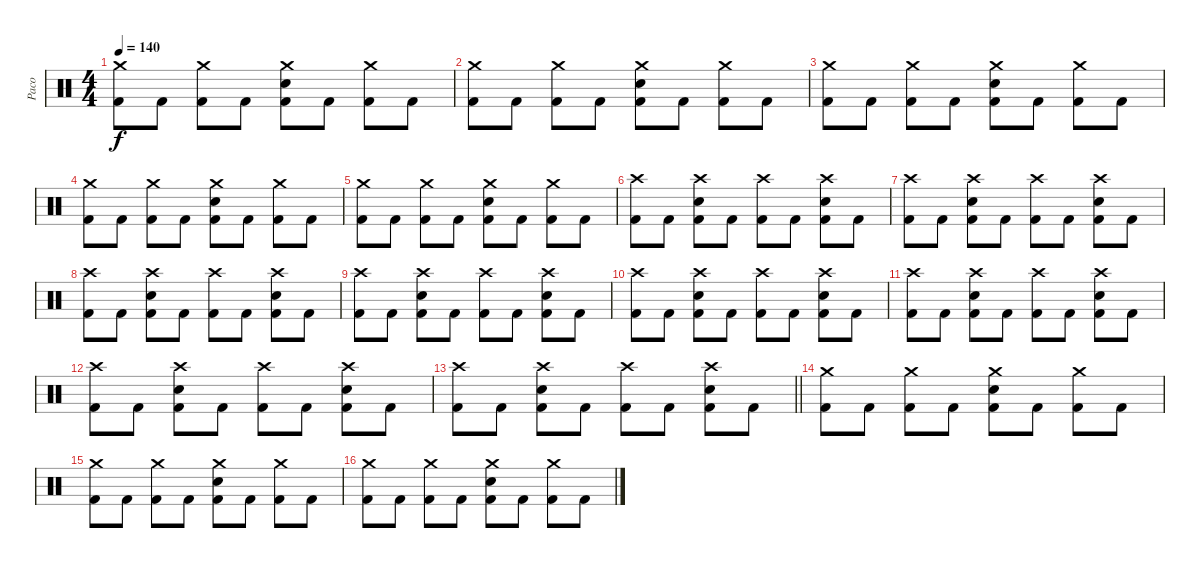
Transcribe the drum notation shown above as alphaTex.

\track ("Paco" "Paco") {instrument percussion}
\staff {score}
\articulation defaults
\ts (4 4)
\tempo 140
\clef neutral
\ks c
("Crash medium (hit)" "Kick (hit) 2").8{dy f} "Kick (hit) 2".8 ("Crash medium (hit)" "Kick (hit) 2").8 "Kick (hit) 2".8 ("Crash medium (hit)" "Electric Snare (hit)" "Kick (hit) 2").8 "Kick (hit) 2".8 ("Crash medium (hit)" "Kick (hit) 2").8 "Kick (hit) 2".8 |
("Crash medium (hit)" "Kick (hit) 2").8 "Kick (hit) 2".8 ("Crash medium (hit)" "Kick (hit) 2").8 "Kick (hit) 2".8 ("Crash medium (hit)" "Electric Snare (hit)" "Kick (hit) 2").8 "Kick (hit) 2".8 ("Crash medium (hit)" "Kick (hit) 2").8 "Kick (hit) 2".8 |
("Crash medium (hit)" "Kick (hit) 2").8 "Kick (hit) 2".8 ("Crash medium (hit)" "Kick (hit) 2").8 "Kick (hit) 2".8 ("Crash medium (hit)" "Electric Snare (hit)" "Kick (hit) 2").8 "Kick (hit) 2".8 ("Crash medium (hit)" "Kick (hit) 2").8 "Kick (hit) 2".8 |
("Crash medium (hit)" "Kick (hit) 2").8 "Kick (hit) 2".8 ("Crash medium (hit)" "Kick (hit) 2").8 "Kick (hit) 2".8 ("Crash medium (hit)" "Electric Snare (hit)" "Kick (hit) 2").8 "Kick (hit) 2".8 ("Crash medium (hit)" "Kick (hit) 2").8 "Kick (hit) 2".8 |
("Crash medium (hit)" "Kick (hit) 2").8 "Kick (hit) 2".8 ("Crash medium (hit)" "Kick (hit) 2").8 "Kick (hit) 2".8 ("Crash medium (hit)" "Electric Snare (hit)" "Kick (hit) 2").8 "Kick (hit) 2".8 ("Crash medium (hit)" "Kick (hit) 2").8 "Kick (hit) 2".8 |
("Crash high (hit)" "Kick (hit) 2").8 "Kick (hit) 2".8 ("Crash high (hit)" "Electric Snare (hit)" "Kick (hit) 2").8 "Kick (hit) 2".8 ("Crash high (hit)" "Kick (hit) 2").8 "Kick (hit) 2".8 ("Crash high (hit)" "Electric Snare (hit)" "Kick (hit) 2").8 "Kick (hit) 2".8 |
("Crash high (hit)" "Kick (hit) 2").8 "Kick (hit) 2".8 ("Crash high (hit)" "Electric Snare (hit)" "Kick (hit) 2").8 "Kick (hit) 2".8 ("Crash high (hit)" "Kick (hit) 2").8 "Kick (hit) 2".8 ("Crash high (hit)" "Electric Snare (hit)" "Kick (hit) 2").8 "Kick (hit) 2".8 |
("Crash high (hit)" "Kick (hit) 2").8 "Kick (hit) 2".8 ("Crash high (hit)" "Electric Snare (hit)" "Kick (hit) 2").8 "Kick (hit) 2".8 ("Crash high (hit)" "Kick (hit) 2").8 "Kick (hit) 2".8 ("Crash high (hit)" "Electric Snare (hit)" "Kick (hit) 2").8 "Kick (hit) 2".8 |
("Crash high (hit)" "Kick (hit) 2").8 "Kick (hit) 2".8 ("Crash high (hit)" "Electric Snare (hit)" "Kick (hit) 2").8 "Kick (hit) 2".8 ("Crash high (hit)" "Kick (hit) 2").8 "Kick (hit) 2".8 ("Crash high (hit)" "Electric Snare (hit)" "Kick (hit) 2").8 "Kick (hit) 2".8 |
("Crash high (hit)" "Kick (hit) 2").8 "Kick (hit) 2".8 ("Crash high (hit)" "Electric Snare (hit)" "Kick (hit) 2").8 "Kick (hit) 2".8 ("Crash high (hit)" "Kick (hit) 2").8 "Kick (hit) 2".8 ("Crash high (hit)" "Electric Snare (hit)" "Kick (hit) 2").8 "Kick (hit) 2".8 |
("Crash high (hit)" "Kick (hit) 2").8 "Kick (hit) 2".8 ("Crash high (hit)" "Electric Snare (hit)" "Kick (hit) 2").8 "Kick (hit) 2".8 ("Crash high (hit)" "Kick (hit) 2").8 "Kick (hit) 2".8 ("Crash high (hit)" "Electric Snare (hit)" "Kick (hit) 2").8 "Kick (hit) 2".8 |
("Crash high (hit)" "Kick (hit) 2").8 "Kick (hit) 2".8 ("Crash high (hit)" "Electric Snare (hit)" "Kick (hit) 2").8 "Kick (hit) 2".8 ("Crash high (hit)" "Kick (hit) 2").8 "Kick (hit) 2".8 ("Crash high (hit)" "Electric Snare (hit)" "Kick (hit) 2").8 "Kick (hit) 2".8 |
\barLineRight lightlight
("Crash high (hit)" "Kick (hit) 2").8 "Kick (hit) 2".8 ("Crash high (hit)" "Electric Snare (hit)" "Kick (hit) 2").8 "Kick (hit) 2".8 ("Crash high (hit)" "Kick (hit) 2").8 "Kick (hit) 2".8 ("Crash high (hit)" "Electric Snare (hit)" "Kick (hit) 2").8 "Kick (hit) 2".8 |
("Crash medium (hit)" "Kick (hit) 2").8 "Kick (hit) 2".8 ("Crash medium (hit)" "Kick (hit) 2").8 "Kick (hit) 2".8 ("Crash medium (hit)" "Electric Snare (hit)" "Kick (hit) 2").8 "Kick (hit) 2".8 ("Crash medium (hit)" "Kick (hit) 2").8 "Kick (hit) 2".8 |
("Crash medium (hit)" "Kick (hit) 2").8 "Kick (hit) 2".8 ("Crash medium (hit)" "Kick (hit) 2").8 "Kick (hit) 2".8 ("Crash medium (hit)" "Electric Snare (hit)" "Kick (hit) 2").8 "Kick (hit) 2".8 ("Crash medium (hit)" "Kick (hit) 2").8 "Kick (hit) 2".8 |
("Crash medium (hit)" "Kick (hit) 2").8 "Kick (hit) 2".8 ("Crash medium (hit)" "Kick (hit) 2").8 "Kick (hit) 2".8 ("Crash medium (hit)" "Electric Snare (hit)" "Kick (hit) 2").8 "Kick (hit) 2".8 ("Crash medium (hit)" "Kick (hit) 2").8 "Kick (hit) 2".8
